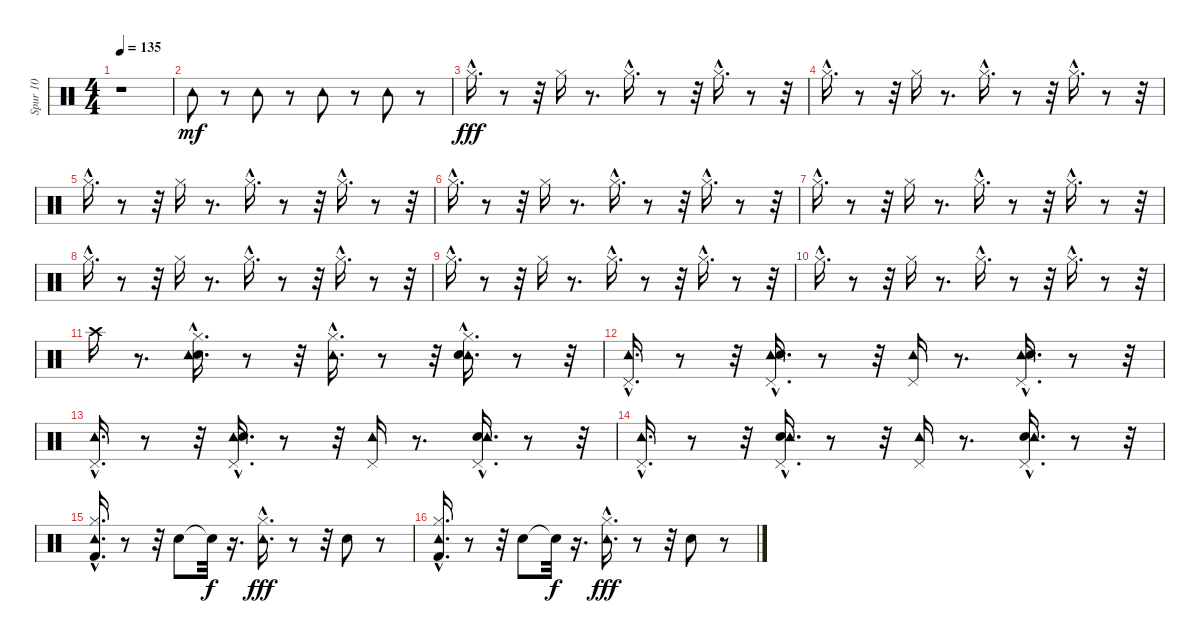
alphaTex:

\track ("Spur 10" "Spur 10") {instrument percussion}
\staff {score}
\articulation defaults
\ts (4 4)
\tempo 135
\clef neutral
\ks c
r.1{dy mf} |
"Tambourine (hit)".8 r.8 "Tambourine (hit)".8 r.8 "Tambourine (hit)".8 r.8 "Tambourine (hit)".8 r.8 |
"Hi-Hat (closed)"{hac}.16{d dy fff volume 8} r.8 r.32 "Hi-Hat (closed)".16 r.8{d} "Hi-Hat (closed)"{hac}.16{d} r.8 r.32 "Hi-Hat (closed)"{hac}.16{d} r.8 r.32 |
"Hi-Hat (closed)"{hac}.16{d} r.8 r.32 "Hi-Hat (closed)".16 r.8{d} "Hi-Hat (closed)"{hac}.16{d} r.8 r.32 "Hi-Hat (closed)"{hac}.16{d} r.8 r.32 |
"Hi-Hat (closed)"{hac}.16{d} r.8 r.32 "Hi-Hat (closed)".16 r.8{d} "Hi-Hat (closed)"{hac}.16{d} r.8 r.32 "Hi-Hat (closed)"{hac}.16{d} r.8 r.32 |
"Hi-Hat (closed)"{hac}.16{d} r.8 r.32 "Hi-Hat (closed)".16 r.8{d} "Hi-Hat (closed)"{hac}.16{d} r.8 r.32 "Hi-Hat (closed)"{hac}.16{d} r.8 r.32 |
"Hi-Hat (closed)"{hac}.16{d} r.8 r.32 "Hi-Hat (closed)".16 r.8{d} "Hi-Hat (closed)"{hac}.16{d} r.8 r.32 "Hi-Hat (closed)"{hac}.16{d} r.8 r.32 |
"Hi-Hat (closed)"{hac}.16{d} r.8 r.32 "Hi-Hat (closed)".16 r.8{d} "Hi-Hat (closed)"{hac}.16{d} r.8 r.32 "Hi-Hat (closed)"{hac}.16{d} r.8 r.32 |
"Hi-Hat (closed)"{hac}.16{d} r.8 r.32 "Hi-Hat (closed)".16 r.8{d} "Hi-Hat (closed)"{hac}.16{d} r.8 r.32 "Hi-Hat (closed)"{hac}.16{d} r.8 r.32 |
"Hi-Hat (closed)"{hac}.16{d} r.8 r.32 "Hi-Hat (closed)".16 r.8{d} "Hi-Hat (closed)"{hac}.16{d} r.8 r.32 "Hi-Hat (closed)"{hac}.16{d} r.8 r.32 |
"Crash high (hit)".16 r.8{d} ("Hi-Hat (closed)" "Electric Snare (hit)"{hac} "Tambourine (hit)").16{d} r.8 r.32 ("Tambourine (hit)"{hac} "Hi-Hat (closed)").16{d} r.8 r.32 ("Tambourine (hit)" "Electric Snare (hit)"{hac} "Hi-Hat (closed)").16{d} r.8 r.32 |
("Pedal Hi-Hat (hit)"{hac} "Tambourine (hit)"{hac}).16{d} r.8 r.32 ("Tambourine (hit)"{hac} "Electric Snare (hit)"{hac} "Pedal Hi-Hat (hit)").16{d} r.8 r.32 ("Tambourine (hit)" "Pedal Hi-Hat (hit)").16 r.8{d} ("Pedal Hi-Hat (hit)" "Tambourine (hit)"{hac} "Electric Snare (hit)").16{d} r.8 r.32 |
("Tambourine (hit)"{hac} "Pedal Hi-Hat (hit)"{hac}).16{d} r.8 r.32 ("Tambourine (hit)"{hac} "Electric Snare (hit)"{hac} "Pedal Hi-Hat (hit)").16{d} r.8 r.32 ("Tambourine (hit)" "Pedal Hi-Hat (hit)").16 r.8{d} ("Pedal Hi-Hat (hit)" "Electric Snare (hit)" "Tambourine (hit)"{hac}).16{d} r.8 r.32 |
("Pedal Hi-Hat (hit)"{hac} "Tambourine (hit)"{hac}).16{d} r.8 r.32 ("Pedal Hi-Hat (hit)" "Electric Snare (hit)"{hac} "Tambourine (hit)"{hac}).16{d} r.8 r.32 ("Tambourine (hit)" "Pedal Hi-Hat (hit)").16 r.8{d} ("Pedal Hi-Hat (hit)" "Electric Snare (hit)" "Tambourine (hit)"{hac}).16{d} r.8 r.32 |
("Hi-Hat (closed)"{hac} "Tambourine (hit)"{hac} "Kick (hit) 2"{hac}).16{d} r.8 r.32 "Electric Snare (hit)".8 "Snare (hit)"{t}.32{dy f} r.16{d} ("Tambourine (hit)"{hac} "Hi-Hat (closed)"{hac}).16{d dy fff} r.8 r.32 "Electric Snare (hit)".8 r.8 |
("Hi-Hat (closed)"{hac} "Kick (hit) 2"{hac} "Tambourine (hit)"{hac}).16{d} r.8 r.32 "Electric Snare (hit)".8 "Snare (hit)"{t}.32{dy f} r.16{d} ("Tambourine (hit)"{hac} "Hi-Hat (closed)"{hac}).16{d dy fff} r.8 r.32 "Electric Snare (hit)".8 r.8
